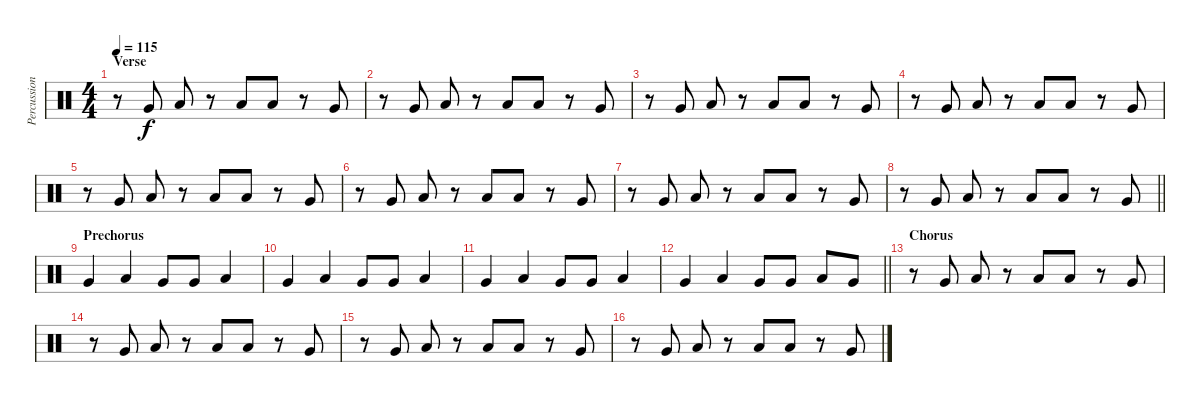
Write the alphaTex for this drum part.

\track ("Percussion" "Percussion") {instrument percussion}
\staff {score}
\articulation defaults
\ts (4 4)
\section ("" "Verse")
\tempo 115
\clef neutral
\ks c
r.8{dy f} "Very Low Tom (hit)".8 "Low Tom (hit)".8 r.8 "Low Tom (hit)".8 "Low Tom (hit)".8 r.8 "Very Low Tom (hit)".8 |
r.8 "Very Low Tom (hit)".8 "Low Tom (hit)".8 r.8 "Low Tom (hit)".8 "Low Tom (hit)".8 r.8 "Very Low Tom (hit)".8 |
r.8 "Very Low Tom (hit)".8 "Low Tom (hit)".8 r.8 "Low Tom (hit)".8 "Low Tom (hit)".8 r.8 "Very Low Tom (hit)".8 |
r.8 "Very Low Tom (hit)".8 "Low Tom (hit)".8 r.8 "Low Tom (hit)".8 "Low Tom (hit)".8 r.8 "Very Low Tom (hit)".8 |
r.8 "Very Low Tom (hit)".8 "Low Tom (hit)".8 r.8 "Low Tom (hit)".8 "Low Tom (hit)".8 r.8 "Very Low Tom (hit)".8 |
r.8 "Very Low Tom (hit)".8 "Low Tom (hit)".8 r.8 "Low Tom (hit)".8 "Low Tom (hit)".8 r.8 "Very Low Tom (hit)".8 |
r.8 "Very Low Tom (hit)".8 "Low Tom (hit)".8 r.8 "Low Tom (hit)".8 "Low Tom (hit)".8 r.8 "Very Low Tom (hit)".8 |
\barLineRight lightlight
r.8 "Very Low Tom (hit)".8 "Low Tom (hit)".8 r.8 "Low Tom (hit)".8 "Low Tom (hit)".8 r.8 "Very Low Tom (hit)".8 |
\section ("" "Prechorus")
"Very Low Tom (hit)".4 "Low Tom (hit)".4 "Very Low Tom (hit)".8 "Very Low Tom (hit)".8 "Low Tom (hit)".4 |
"Very Low Tom (hit)".4 "Low Tom (hit)".4 "Very Low Tom (hit)".8 "Very Low Tom (hit)".8 "Low Tom (hit)".4 |
"Very Low Tom (hit)".4 "Low Tom (hit)".4 "Very Low Tom (hit)".8 "Very Low Tom (hit)".8 "Low Tom (hit)".4 |
\barLineRight lightlight "Very Low Tom (hit)".4 "Low Tom (hit)".4 "Very Low Tom (hit)".8 "Very Low Tom (hit)".8 "Low Tom (hit)".8 "Very Low Tom (hit)".8
|
\section ("" "Chorus")
r.8 "Very Low Tom (hit)".8 "Low Tom (hit)".8 r.8 "Low Tom (hit)".8 "Low Tom (hit)".8 r.8 "Very Low Tom (hit)".8 |
r.8 "Very Low Tom (hit)".8 "Low Tom (hit)".8 r.8 "Low Tom (hit)".8 "Low Tom (hit)".8 r.8 "Very Low Tom (hit)".8 |
r.8 "Very Low Tom (hit)".8 "Low Tom (hit)".8 r.8 "Low Tom (hit)".8 "Low Tom (hit)".8 r.8 "Very Low Tom (hit)".8 |
r.8 "Very Low Tom (hit)".8 "Low Tom (hit)".8 r.8 "Low Tom (hit)".8 "Low Tom (hit)".8 r.8 "Very Low Tom (hit)".8
